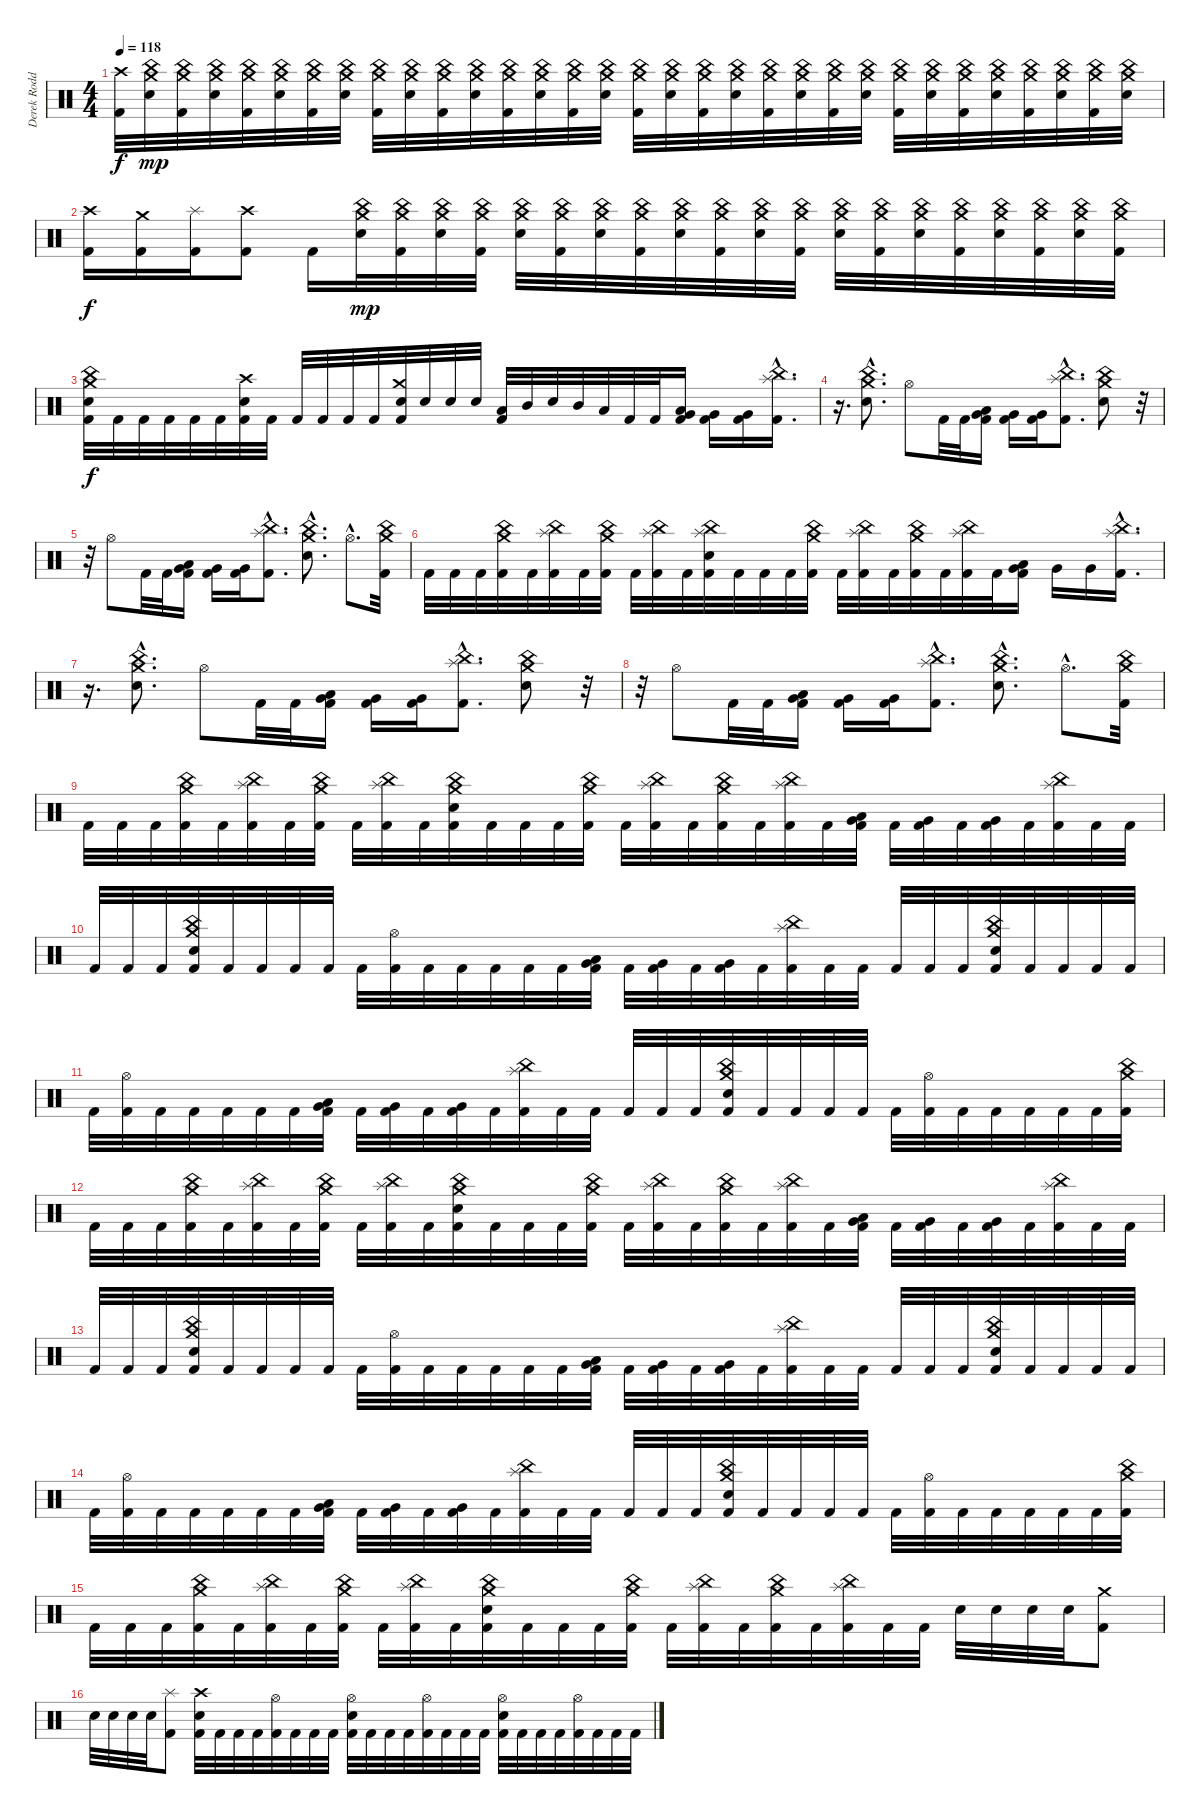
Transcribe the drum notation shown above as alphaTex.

\track ("Derek Roddy" "Derek Rodd") {instrument percussion}
\staff {score}
\articulation defaults
\ts (4 4)
\tempo 118
\clef neutral
\ks c
("Crash high (hit)" "Kick (hit) 2").32{dy f} ("Crash medium (hit)" "China (hit)" "Electric Snare (hit)").32{dy mp} ("Crash medium (hit)" "China (hit)" "Kick (hit) 2").32 ("Crash medium (hit)" "China (hit)" "Electric Snare (hit)").32 ("Crash medium (hit)" "China (hit)" "Kick (hit) 2").32 ("Crash medium (hit)" "China (hit)" "Electric Snare (hit)").32 ("Crash medium (hit)" "China (hit)" "Kick (hit) 2").32 ("Crash medium (hit)" "China (hit)" "Electric Snare (hit)").32 ("Crash medium (hit)" "China (hit)" "Kick (hit) 2").32 ("Crash medium (hit)" "China (hit)" "Electric Snare (hit)").32 ("Crash medium (hit)" "China (hit)" "Kick (hit) 2").32 ("Crash medium (hit)" "China (hit)" "Electric Snare (hit)").32 ("Crash medium (hit)" "China (hit)" "Kick (hit) 2").32 ("Crash medium (hit)" "China (hit)" "Electric Snare (hit)").32 ("Crash medium (hit)" "China (hit)" "Kick (hit) 2").32 ("Crash medium (hit)" "China (hit)" "Electric Snare (hit)").32 ("Crash medium (hit)" "China (hit)" "Kick (hit) 2").32 ("Crash medium (hit)" "China (hit)" "Electric Snare (hit)").32 ("Crash medium (hit)" "China (hit)" "Kick (hit) 2").32 ("Crash medium (hit)" "China (hit)" "Electric Snare (hit)").32 ("Crash medium (hit)" "China (hit)" "Kick (hit) 2").32 ("Crash medium (hit)" "China (hit)" "Electric Snare (hit)").32 ("Crash medium (hit)" "China (hit)" "Kick (hit) 2").32 ("Crash medium (hit)" "China (hit)" "Electric Snare (hit)").32 ("Crash medium (hit)" "China (hit)" "Kick (hit) 2").32 ("Crash medium (hit)" "China (hit)" "Electric Snare (hit)").32 ("Crash medium (hit)" "China (hit)" "Kick (hit) 2").32 ("Crash medium (hit)" "China (hit)" "Electric Snare (hit)").32 ("Crash medium (hit)" "China (hit)" "Kick (hit) 2").32 ("Crash medium (hit)" "China (hit)" "Electric Snare (hit)").32 ("Crash medium (hit)" "China (hit)" "Kick (hit) 2").32 ("Crash medium (hit)" "China (hit)" "Electric Snare (hit)").32 |
("Crash high (hit)" "Kick (hit) 2").16{dy f} ("Crash medium (hit)" "Kick (hit) 2").16 ("Splash (hit)" "Kick (hit) 2").16 ("Crash high (hit)" "Kick (hit) 2").8 "Kick (hit) 2".16 ("Crash medium (hit)" "China (hit)" "Electric Snare (hit)").32{dy mp} ("Crash medium (hit)" "China (hit)" "Kick (hit) 2").32 ("Crash medium (hit)" "China (hit)" "Electric Snare (hit)").32 ("Crash medium (hit)" "China (hit)" "Kick (hit) 2").32 ("Crash medium (hit)" "China (hit)" "Electric Snare (hit)").32 ("Crash medium (hit)" "China (hit)" "Kick (hit) 2").32 ("Crash medium (hit)" "China (hit)" "Electric Snare (hit)").32 ("Crash medium (hit)" "China (hit)" "Kick (hit) 2").32 ("Crash medium (hit)" "China (hit)" "Electric Snare (hit)").32 ("Crash medium (hit)" "China (hit)" "Kick (hit) 2").32 ("Crash medium (hit)" "China (hit)" "Electric Snare (hit)").32 ("Crash medium (hit)" "China (hit)" "Kick (hit) 2").32 ("Crash medium (hit)" "China (hit)" "Electric Snare (hit)").32 ("Crash medium (hit)" "China (hit)" "Kick (hit) 2").32 ("Crash medium (hit)" "China (hit)" "Electric Snare (hit)").32 ("Crash medium (hit)" "China (hit)" "Kick (hit) 2").32 ("Crash medium (hit)" "China (hit)" "Electric Snare (hit)").32 ("Crash medium (hit)" "China (hit)" "Kick (hit) 2").32 ("Crash medium (hit)" "China (hit)" "Electric Snare (hit)").32 ("Crash medium (hit)" "China (hit)" "Kick (hit) 2").32 |
("Crash medium (hit)" "China (hit)" "Electric Snare (hit)" "Kick (hit) 2").32{dy f} "Kick (hit) 2".32 "Kick (hit) 2".32 "Kick (hit) 2".32 "Kick (hit) 2".32 "Kick (hit) 2".32 ("Crash high (hit)" "Electric Snare (hit)" "Kick (hit) 2").32 "Kick (hit) 2".32 "Kick (hit) 2".32 "Kick (hit) 2".32 "Kick (hit) 2".32 "Kick (hit) 2".32 ("Crash medium (hit)" "Electric Snare (hit)" "Kick (hit) 2").32 "Electric Snare (hit)".32 "Electric Snare (hit)".32 "Electric Snare (hit)".32 ("Low Tom (hit)" "Kick (hit) 2").32 "Mid Tom (hit)".32 "Electric Snare (hit)".32 "Mid Tom (hit)".32 "Low Tom (hit)".32 "Kick (hit) 2".32 "Kick (hit) 2".32 ("Low Tom (hit)" "Very Low Tom (hit)" "Kick (hit) 2").16 ("Very Low Tom (hit)" "Kick (hit) 2").16 ("Very Low Tom (hit)" "Kick (hit) 2").16 ("Splash (hit)"{hac} "China (hit)"{hac} "Kick (hit) 2"{hac}).16{d} |
r.16{d} ("Crash medium (hit)"{hac} "China (hit)"{hac} "Electric Snare (hit)"{hac}).8{d} "Hi-Hat (open)".8 "Kick (hit) 2".32 "Kick (hit) 2".32 ("Low Tom (hit)" "Very Low Tom (hit)" "Kick (hit) 2").16 ("Very Low Tom (hit)" "Kick (hit) 2").16 ("Very Low Tom (hit)" "Kick (hit) 2").16 ("Splash (hit)"{hac} "China (hit)"{hac} "Kick (hit) 2"{hac}).8{d} ("Crash medium (hit)" "China (hit)" "Electric Snare (hit)").8 r.32 |
r.32 "Hi-Hat (open)".8 "Kick (hit) 2".32 "Kick (hit) 2".32 ("Low Tom (hit)" "Very Low Tom (hit)" "Kick (hit) 2").16 ("Very Low Tom (hit)" "Kick (hit) 2").16 ("Very Low Tom (hit)" "Kick (hit) 2").16 ("Splash (hit)"{hac} "China (hit)"{hac} "Kick (hit) 2"{hac}).8{d} ("Crash medium (hit)"{hac} "China (hit)"{hac} "Electric Snare (hit)"{hac}).8{d} "Hi-Hat (open)"{hac}.8{d} ("Crash medium (hit)" "China (hit)" "Kick (hit) 2").32 |
"Kick (hit) 2".32 "Kick (hit) 2".32 "Kick (hit) 2".32 ("Crash medium (hit)" "China (hit)" "Kick (hit) 2").32 "Kick (hit) 2".32 ("Splash (hit)" "China (hit)" "Kick (hit) 2").32 "Kick (hit) 2".32 ("Crash medium (hit)" "China (hit)" "Kick (hit) 2").32 "Kick (hit) 2".32 ("Splash (hit)" "China (hit)" "Kick (hit) 2").32 "Kick (hit) 2".32 ("Splash (hit)" "China (hit)" "Electric Snare (hit)" "Kick (hit) 2").32 "Kick (hit) 2".32 "Kick (hit) 2".32 "Kick (hit) 2".32 ("Crash medium (hit)" "China (hit)" "Kick (hit) 2").32 "Kick (hit) 2".32 ("Splash (hit)" "China (hit)" "Kick (hit) 2").32 "Kick (hit) 2".32 ("Crash medium (hit)" "China (hit)" "Kick (hit) 2").32 "Kick (hit) 2".32 ("Splash (hit)" "China (hit)" "Kick (hit) 2").32 "Kick (hit) 2".32 ("Low Tom (hit)" "Very Low Tom (hit)" "Kick (hit) 2").16 "Very Low Tom (hit)".16 "Very Low Tom (hit)".16 ("Splash (hit)"{hac} "China (hit)"{hac} "Kick (hit) 2"{hac}).16{d} |
r.16{d} ("Crash medium (hit)"{hac} "China (hit)"{hac} "Electric Snare (hit)"{hac}).8{d} "Hi-Hat (open)".8 "Kick (hit) 2".32 "Kick (hit) 2".32 ("Low Tom (hit)" "Very Low Tom (hit)" "Kick (hit) 2").16 ("Very Low Tom (hit)" "Kick (hit) 2").16 ("Very Low Tom (hit)" "Kick (hit) 2").16 ("Splash (hit)"{hac} "China (hit)"{hac} "Kick (hit) 2"{hac}).8{d} ("Crash medium (hit)" "China (hit)" "Electric Snare (hit)").8 r.32 |
r.32 "Hi-Hat (open)".8 "Kick (hit) 2".32 "Kick (hit) 2".32 ("Low Tom (hit)" "Very Low Tom (hit)" "Kick (hit) 2").16 ("Very Low Tom (hit)" "Kick (hit) 2").16 ("Very Low Tom (hit)" "Kick (hit) 2").16 ("Splash (hit)"{hac} "China (hit)"{hac} "Kick (hit) 2"{hac}).8{d} ("Crash medium (hit)"{hac} "China (hit)"{hac} "Electric Snare (hit)"{hac}).8{d} "Hi-Hat (open)"{hac}.8{d} ("Crash medium (hit)" "China (hit)" "Kick (hit) 2").32 |
"Kick (hit) 2".32 "Kick (hit) 2".32 "Kick (hit) 2".32 ("Crash medium (hit)" "China (hit)" "Kick (hit) 2").32 "Kick (hit) 2".32 ("Splash (hit)" "China (hit)" "Kick (hit) 2").32 "Kick (hit) 2".32 ("Crash medium (hit)" "China (hit)" "Kick (hit) 2").32 "Kick (hit) 2".32 ("Splash (hit)" "China (hit)" "Kick (hit) 2").32 "Kick (hit) 2".32 ("Crash medium (hit)" "China (hit)" "Electric Snare (hit)" "Kick (hit) 2").32 "Kick (hit) 2".32 "Kick (hit) 2".32 "Kick (hit) 2".32 ("Crash medium (hit)" "China (hit)" "Kick (hit) 2").32 "Kick (hit) 2".32 ("Splash (hit)" "China (hit)" "Kick (hit) 2").32 "Kick (hit) 2".32 ("Crash medium (hit)" "China (hit)" "Kick (hit) 2").32 "Kick (hit) 2".32 ("Splash (hit)" "China (hit)" "Kick (hit) 2").32 "Kick (hit) 2".32 ("Low Tom (hit)" "Very Low Tom (hit)" "Kick (hit) 2").32 "Kick (hit) 2".32 ("Very Low Tom (hit)" "Kick (hit) 2").32 "Kick (hit) 2".32 ("Very Low Tom (hit)" "Kick (hit) 2").32 "Kick (hit) 2".32 ("Splash (hit)" "China (hit)" "Kick (hit) 2").32 "Kick (hit) 2".32 "Kick (hit) 2".32 |
"Kick (hit) 2".32 "Kick (hit) 2".32 "Kick (hit) 2".32 ("Crash medium (hit)" "China (hit)" "Electric Snare (hit)" "Kick (hit) 2").32 "Kick (hit) 2".32 "Kick (hit) 2".32 "Kick (hit) 2".32 "Kick (hit) 2".32 "Kick (hit) 2".32 ("Hi-Hat (open)" "Kick (hit) 2").32 "Kick (hit) 2".32 "Kick (hit) 2".32 "Kick (hit) 2".32 "Kick (hit) 2".32 "Kick (hit) 2".32 ("Low Tom (hit)" "Very Low Tom (hit)" "Kick (hit) 2").32 "Kick (hit) 2".32 ("Very Low Tom (hit)" "Kick (hit) 2").32 "Kick (hit) 2".32 ("Very Low Tom (hit)" "Kick (hit) 2").32 "Kick (hit) 2".32 ("Splash (hit)" "China (hit)" "Kick (hit) 2").32 "Kick (hit) 2".32 "Kick (hit) 2".32 "Kick (hit) 2".32 "Kick (hit) 2".32 "Kick (hit) 2".32 ("Crash medium (hit)" "China (hit)" "Electric Snare (hit)" "Kick (hit) 2").32 "Kick (hit) 2".32 "Kick (hit) 2".32 "Kick (hit) 2".32 "Kick (hit) 2".32 |
"Kick (hit) 2".32 ("Hi-Hat (open)" "Kick (hit) 2").32 "Kick (hit) 2".32 "Kick (hit) 2".32 "Kick (hit) 2".32 "Kick (hit) 2".32 "Kick (hit) 2".32 ("Low Tom (hit)" "Very Low Tom (hit)" "Kick (hit) 2").32 "Kick (hit) 2".32 ("Very Low Tom (hit)" "Kick (hit) 2").32 "Kick (hit) 2".32 ("Very Low Tom (hit)" "Kick (hit) 2").32 "Kick (hit) 2".32 ("Splash (hit)" "China (hit)" "Kick (hit) 2").32 "Kick (hit) 2".32 "Kick (hit) 2".32 "Kick (hit) 2".32 "Kick (hit) 2".32 "Kick (hit) 2".32 ("Crash medium (hit)" "China (hit)" "Electric Snare (hit)" "Kick (hit) 2").32 "Kick (hit) 2".32 "Kick (hit) 2".32 "Kick (hit) 2".32 "Kick (hit) 2".32 "Kick (hit) 2".32 ("Hi-Hat (open)" "Kick (hit) 2").32 "Kick (hit) 2".32 "Kick (hit) 2".32 "Kick (hit) 2".32 "Kick (hit) 2".32 "Kick (hit) 2".32 ("Crash medium (hit)" "China (hit)" "Kick (hit) 2").32 |
"Kick (hit) 2".32 "Kick (hit) 2".32 "Kick (hit) 2".32 ("Crash medium (hit)" "China (hit)" "Kick (hit) 2").32 "Kick (hit) 2".32 ("Splash (hit)" "China (hit)" "Kick (hit) 2").32 "Kick (hit) 2".32 ("Crash medium (hit)" "China (hit)" "Kick (hit) 2").32 "Kick (hit) 2".32 ("Splash (hit)" "China (hit)" "Kick (hit) 2").32 "Kick (hit) 2".32 ("Crash medium (hit)" "China (hit)" "Electric Snare (hit)" "Kick (hit) 2").32 "Kick (hit) 2".32 "Kick (hit) 2".32 "Kick (hit) 2".32 ("Crash medium (hit)" "China (hit)" "Kick (hit) 2").32 "Kick (hit) 2".32 ("Splash (hit)" "China (hit)" "Kick (hit) 2").32 "Kick (hit) 2".32 ("Crash medium (hit)" "China (hit)" "Kick (hit) 2").32 "Kick (hit) 2".32 ("Splash (hit)" "China (hit)" "Kick (hit) 2").32 "Kick (hit) 2".32 ("Low Tom (hit)" "Very Low Tom (hit)" "Kick (hit) 2").32 "Kick (hit) 2".32 ("Very Low Tom (hit)" "Kick (hit) 2").32 "Kick (hit) 2".32 ("Very Low Tom (hit)" "Kick (hit) 2").32 "Kick (hit) 2".32 ("Splash (hit)" "China (hit)" "Kick (hit) 2").32 "Kick (hit) 2".32 "Kick (hit) 2".32 |
"Kick (hit) 2".32 "Kick (hit) 2".32 "Kick (hit) 2".32 ("Crash medium (hit)" "China (hit)" "Electric Snare (hit)" "Kick (hit) 2").32 "Kick (hit) 2".32 "Kick (hit) 2".32 "Kick (hit) 2".32 "Kick (hit) 2".32 "Kick (hit) 2".32 ("Hi-Hat (open)" "Kick (hit) 2").32 "Kick (hit) 2".32 "Kick (hit) 2".32 "Kick (hit) 2".32 "Kick (hit) 2".32 "Kick (hit) 2".32 ("Low Tom (hit)" "Very Low Tom (hit)" "Kick (hit) 2").32 "Kick (hit) 2".32 ("Very Low Tom (hit)" "Kick (hit) 2").32 "Kick (hit) 2".32 ("Very Low Tom (hit)" "Kick (hit) 2").32 "Kick (hit) 2".32 ("Splash (hit)" "China (hit)" "Kick (hit) 2").32 "Kick (hit) 2".32 "Kick (hit) 2".32 "Kick (hit) 2".32 "Kick (hit) 2".32 "Kick (hit) 2".32 ("Crash medium (hit)" "China (hit)" "Electric Snare (hit)" "Kick (hit) 2").32 "Kick (hit) 2".32 "Kick (hit) 2".32 "Kick (hit) 2".32 "Kick (hit) 2".32 |
"Kick (hit) 2".32 ("Hi-Hat (open)" "Kick (hit) 2").32 "Kick (hit) 2".32 "Kick (hit) 2".32 "Kick (hit) 2".32 "Kick (hit) 2".32 "Kick (hit) 2".32 ("Low Tom (hit)" "Very Low Tom (hit)" "Kick (hit) 2").32 "Kick (hit) 2".32 ("Very Low Tom (hit)" "Kick (hit) 2").32 "Kick (hit) 2".32 ("Very Low Tom (hit)" "Kick (hit) 2").32 "Kick (hit) 2".32 ("Splash (hit)" "China (hit)" "Kick (hit) 2").32 "Kick (hit) 2".32 "Kick (hit) 2".32 "Kick (hit) 2".32 "Kick (hit) 2".32 "Kick (hit) 2".32 ("Crash medium (hit)" "China (hit)" "Electric Snare (hit)" "Kick (hit) 2").32 "Kick (hit) 2".32 "Kick (hit) 2".32 "Kick (hit) 2".32 "Kick (hit) 2".32 "Kick (hit) 2".32 ("Hi-Hat (open)" "Kick (hit) 2").32 "Kick (hit) 2".32 "Kick (hit) 2".32 "Kick (hit) 2".32 "Kick (hit) 2".32 "Kick (hit) 2".32 ("Crash medium (hit)" "China (hit)" "Kick (hit) 2").32 |
"Kick (hit) 2".32 "Kick (hit) 2".32 "Kick (hit) 2".32 ("Crash medium (hit)" "China (hit)" "Kick (hit) 2").32 "Kick (hit) 2".32 ("Splash (hit)" "China (hit)" "Kick (hit) 2").32 "Kick (hit) 2".32 ("Crash medium (hit)" "China (hit)" "Kick (hit) 2").32 "Kick (hit) 2".32 ("Splash (hit)" "China (hit)" "Kick (hit) 2").32 "Kick (hit) 2".32 ("Crash medium (hit)" "China (hit)" "Electric Snare (hit)" "Kick (hit) 2").32 "Kick (hit) 2".32 "Kick (hit) 2".32 "Kick (hit) 2".32 ("Crash medium (hit)" "China (hit)" "Kick (hit) 2").32 "Kick (hit) 2".32 ("Splash (hit)" "China (hit)" "Kick (hit) 2").32 "Kick (hit) 2".32 ("Crash medium (hit)" "China (hit)" "Kick (hit) 2").32 "Kick (hit) 2".32 ("Splash (hit)" "China (hit)" "Kick (hit) 2").32 "Kick (hit) 2".32 "Kick (hit) 2".32 "Electric Snare (hit)".32 "Electric Snare (hit)".32 "Electric Snare (hit)".32 "Electric Snare (hit)".32 ("Crash medium (hit)" "Kick (hit) 2").8 |
"Electric Snare (hit)".32 "Electric Snare (hit)".32 "Electric Snare (hit)".32 "Electric Snare (hit)".32 ("Splash (hit)" "Kick (hit) 2").8 ("Crash high (hit)" "Electric Snare (hit)" "Kick (hit) 2").32 "Kick (hit) 2".32 "Kick (hit) 2".32 "Kick (hit) 2".32 ("Hi-Hat (open)" "Kick (hit) 2").32 "Kick (hit) 2".32 "Kick (hit) 2".32 "Kick (hit) 2".32 ("Hi-Hat (open)" "Electric Snare (hit)" "Kick (hit) 2").32 "Kick (hit) 2".32 "Kick (hit) 2".32 "Kick (hit) 2".32 ("Hi-Hat (open)" "Kick (hit) 2").32 "Kick (hit) 2".32 "Kick (hit) 2".32 "Kick (hit) 2".32 ("Hi-Hat (open)" "Electric Snare (hit)" "Kick (hit) 2").32 "Kick (hit) 2".32 "Kick (hit) 2".32 "Kick (hit) 2".32 ("Hi-Hat (open)" "Kick (hit) 2").32 "Kick (hit) 2".32 "Kick (hit) 2".32 "Kick (hit) 2".32
